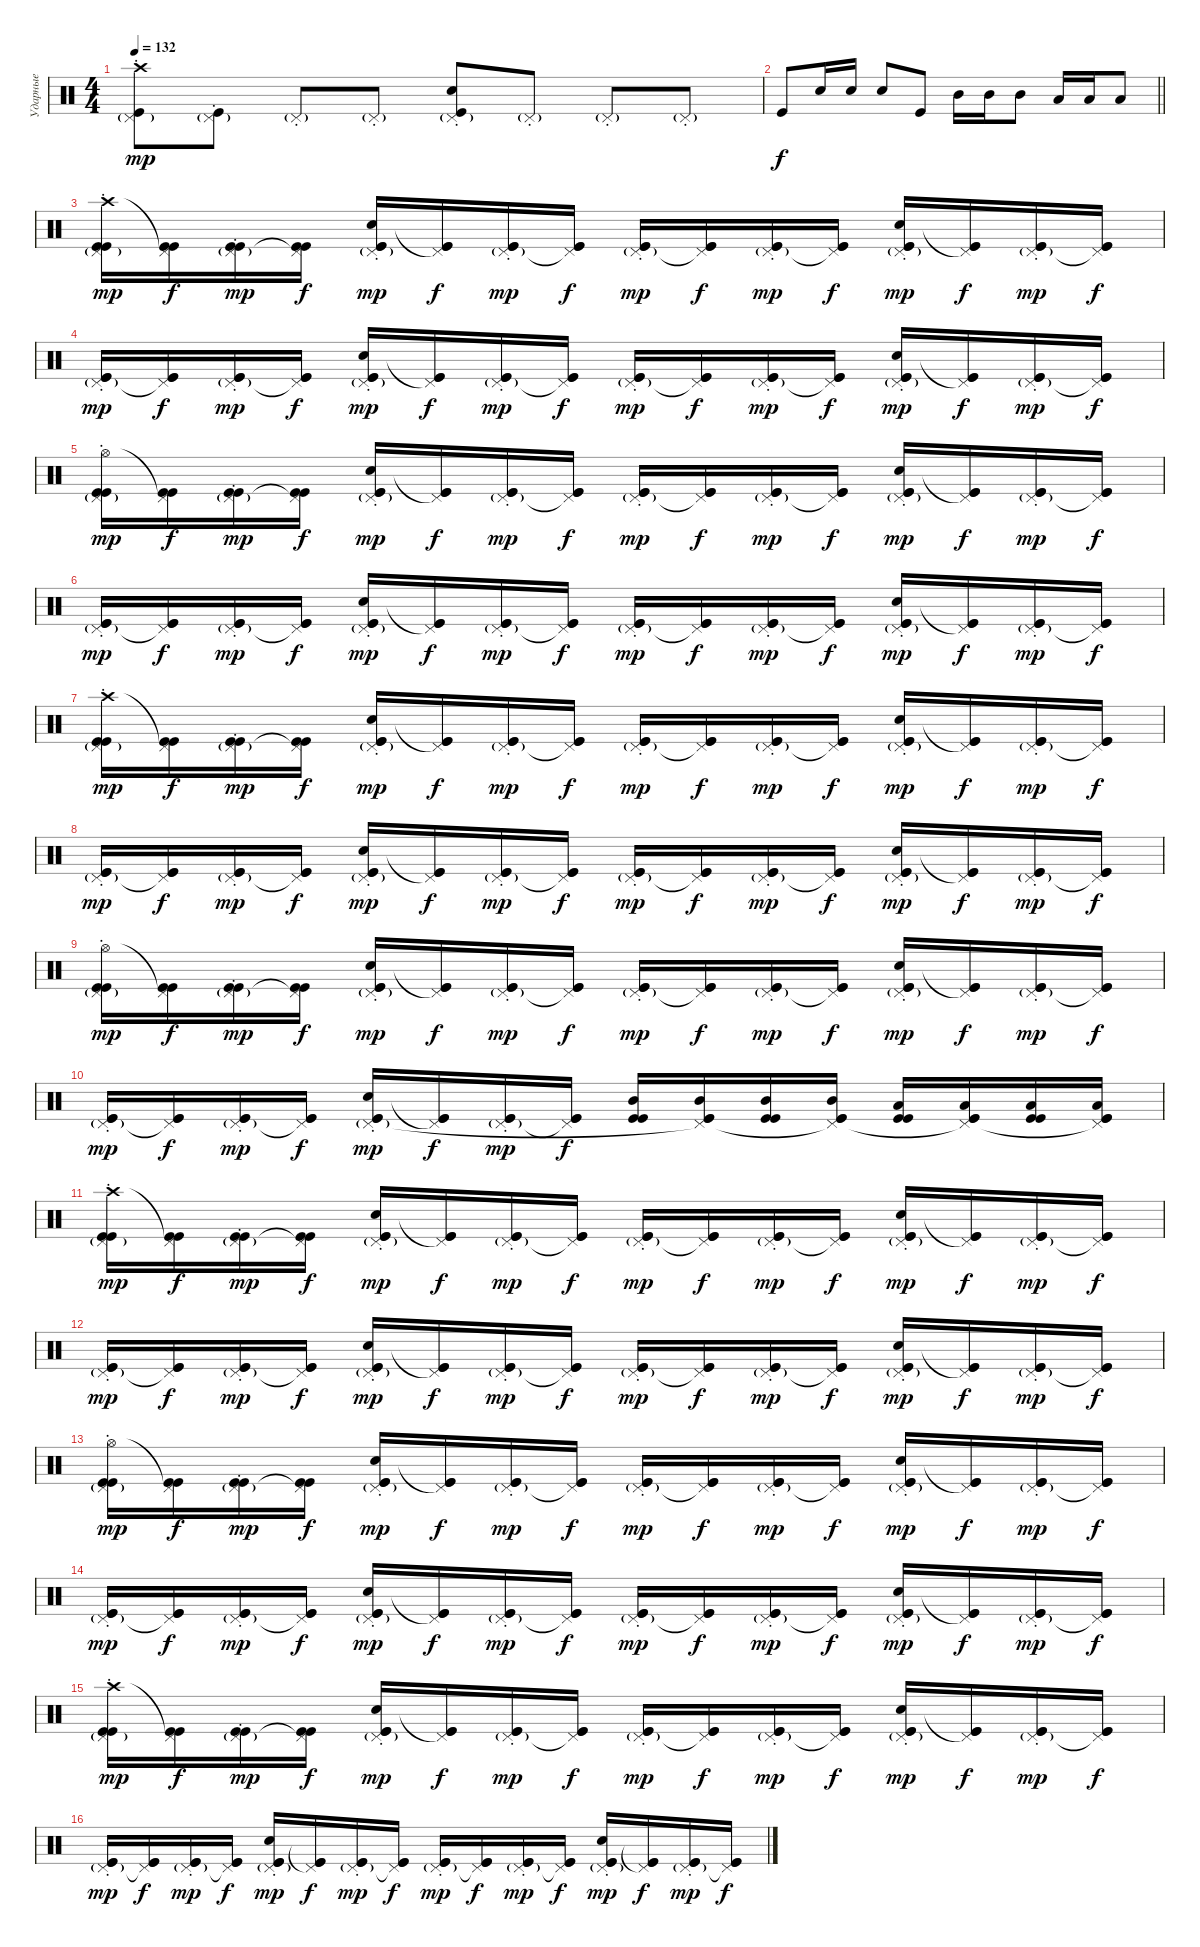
\track ("Ударные" "Ударные") {instrument percussion}
\staff {score}
\articulation defaults
\ts (4 4)
\tempo 132
\clef neutral
\ks c
("Pedal Hi-Hat (hit)"{g st} "Kick (hit)" "Crash high (hit)").8{dy mp} ("Pedal Hi-Hat (hit)"{g st} "Kick (hit)").8 "Pedal Hi-Hat (hit)"{g st}.8 "Pedal Hi-Hat (hit)"{g st}.8 ("Pedal Hi-Hat (hit)"{g st} "Electric Snare (hit)" "Kick (hit)").8 "Pedal Hi-Hat (hit)"{g st}.8 "Pedal Hi-Hat (hit)"{g st}.8 "Pedal Hi-Hat (hit)"{g st}.8 |
\barLineRight lightlight "Kick (hit)".8{dy f} "Electric Snare (hit)".16 "Electric Snare (hit)".16 "Electric Snare (hit)".8 "Kick (hit)".8 "Mid Tom (hit)".16 "Mid Tom (hit)".16 "Mid Tom (hit)".8 "Low Tom (hit)".16 "Low Tom (hit)".16 "Low Tom (hit)".8
|
("Kick (hit)" "Kick (hit)" "Crash high (hit)" "Pedal Hi-Hat (hit)"{g st}).16{dy mp} ("Kick (hit)" "Kick (hit)" "Pedal Hi-Hat (hit)"{t}).16{dy f} ("Kick (hit)" "Kick (hit)" "Pedal Hi-Hat (hit)"{g st}).16{dy mp} ("Kick (hit)" "Kick (hit)" "Pedal Hi-Hat (hit)"{t}).16{dy f} ("Kick (hit)" "Kick (hit)" "Electric Snare (hit)" "Pedal Hi-Hat (hit)"{g st}).16{dy mp} ("Kick (hit)" "Kick (hit)" "Pedal Hi-Hat (hit)"{t}).16{dy f} ("Kick (hit)" "Kick (hit)" "Pedal Hi-Hat (hit)"{g st}).16{dy mp} ("Kick (hit)" "Kick (hit)" "Pedal Hi-Hat (hit)"{t}).16{dy f} ("Kick (hit)" "Kick (hit)" "Pedal Hi-Hat (hit)"{g st}).16{dy mp} ("Kick (hit)" "Kick (hit)" "Pedal Hi-Hat (hit)"{t}).16{dy f} ("Kick (hit)" "Kick (hit)" "Pedal Hi-Hat (hit)"{g st}).16{dy mp} ("Kick (hit)" "Kick (hit)" "Pedal Hi-Hat (hit)"{t}).16{dy f} ("Kick (hit)" "Kick (hit)" "Electric Snare (hit)" "Pedal Hi-Hat (hit)"{g st}).16{dy mp} ("Kick (hit)" "Kick (hit)" "Pedal Hi-Hat (hit)"{t}).16{dy f} ("Kick (hit)" "Kick (hit)" "Pedal Hi-Hat (hit)"{g st}).16{dy mp} ("Kick (hit)" "Kick (hit)" "Pedal Hi-Hat (hit)"{t}).16{dy f} |
("Kick (hit)" "Kick (hit)" "Pedal Hi-Hat (hit)"{g st}).16{dy mp} ("Kick (hit)" "Kick (hit)" "Pedal Hi-Hat (hit)"{t}).16{dy f} ("Kick (hit)" "Kick (hit)" "Pedal Hi-Hat (hit)"{g st}).16{dy mp} ("Kick (hit)" "Kick (hit)" "Pedal Hi-Hat (hit)"{t}).16{dy f} ("Kick (hit)" "Kick (hit)" "Electric Snare (hit)" "Pedal Hi-Hat (hit)"{g st}).16{dy mp} ("Kick (hit)" "Kick (hit)" "Pedal Hi-Hat (hit)"{t}).16{dy f} ("Kick (hit)" "Kick (hit)" "Pedal Hi-Hat (hit)"{g st}).16{dy mp} ("Kick (hit)" "Kick (hit)" "Pedal Hi-Hat (hit)"{t}).16{dy f} ("Kick (hit)" "Kick (hit)" "Pedal Hi-Hat (hit)"{g st}).16{dy mp} ("Kick (hit)" "Kick (hit)" "Pedal Hi-Hat (hit)"{t}).16{dy f} ("Kick (hit)" "Kick (hit)" "Pedal Hi-Hat (hit)"{g st}).16{dy mp} ("Kick (hit)" "Kick (hit)" "Pedal Hi-Hat (hit)"{t}).16{dy f} ("Kick (hit)" "Kick (hit)" "Electric Snare (hit)" "Pedal Hi-Hat (hit)"{g st}).16{dy mp} ("Kick (hit)" "Kick (hit)" "Pedal Hi-Hat (hit)"{t}).16{dy f} ("Kick (hit)" "Kick (hit)" "Pedal Hi-Hat (hit)"{g st}).16{dy mp} ("Kick (hit)" "Kick (hit)" "Pedal Hi-Hat (hit)"{t}).16{dy f} |
("Kick (hit)" "Kick (hit)" "Hi-Hat (open)" "Pedal Hi-Hat (hit)"{g st}).16{dy mp} ("Kick (hit)" "Kick (hit)" "Pedal Hi-Hat (hit)"{t}).16{dy f} ("Kick (hit)" "Kick (hit)" "Pedal Hi-Hat (hit)"{g st}).16{dy mp} ("Kick (hit)" "Kick (hit)" "Pedal Hi-Hat (hit)"{t}).16{dy f} ("Kick (hit)" "Kick (hit)" "Electric Snare (hit)" "Pedal Hi-Hat (hit)"{g st}).16{dy mp} ("Kick (hit)" "Kick (hit)" "Pedal Hi-Hat (hit)"{t}).16{dy f} ("Kick (hit)" "Kick (hit)" "Pedal Hi-Hat (hit)"{g st}).16{dy mp} ("Kick (hit)" "Kick (hit)" "Pedal Hi-Hat (hit)"{t}).16{dy f} ("Kick (hit)" "Kick (hit)" "Pedal Hi-Hat (hit)"{g st}).16{dy mp} ("Kick (hit)" "Kick (hit)" "Pedal Hi-Hat (hit)"{t}).16{dy f} ("Kick (hit)" "Kick (hit)" "Pedal Hi-Hat (hit)"{g st}).16{dy mp} ("Kick (hit)" "Kick (hit)" "Pedal Hi-Hat (hit)"{t}).16{dy f} ("Kick (hit)" "Kick (hit)" "Electric Snare (hit)" "Pedal Hi-Hat (hit)"{g st}).16{dy mp} ("Kick (hit)" "Kick (hit)" "Pedal Hi-Hat (hit)"{t}).16{dy f} ("Kick (hit)" "Kick (hit)" "Pedal Hi-Hat (hit)"{g st}).16{dy mp} ("Kick (hit)" "Kick (hit)" "Pedal Hi-Hat (hit)"{t}).16{dy f} |
("Kick (hit)" "Kick (hit)" "Pedal Hi-Hat (hit)"{g st}).16{dy mp} ("Kick (hit)" "Kick (hit)" "Pedal Hi-Hat (hit)"{t}).16{dy f} ("Kick (hit)" "Kick (hit)" "Pedal Hi-Hat (hit)"{g st}).16{dy mp} ("Kick (hit)" "Kick (hit)" "Pedal Hi-Hat (hit)"{t}).16{dy f} ("Kick (hit)" "Kick (hit)" "Electric Snare (hit)" "Pedal Hi-Hat (hit)"{g st}).16{dy mp} ("Kick (hit)" "Kick (hit)" "Pedal Hi-Hat (hit)"{t}).16{dy f} ("Kick (hit)" "Kick (hit)" "Pedal Hi-Hat (hit)"{g st}).16{dy mp} ("Kick (hit)" "Kick (hit)" "Pedal Hi-Hat (hit)"{t}).16{dy f} ("Kick (hit)" "Kick (hit)" "Pedal Hi-Hat (hit)"{g st}).16{dy mp} ("Kick (hit)" "Kick (hit)" "Pedal Hi-Hat (hit)"{t}).16{dy f} ("Kick (hit)" "Kick (hit)" "Pedal Hi-Hat (hit)"{g st}).16{dy mp} ("Kick (hit)" "Kick (hit)" "Pedal Hi-Hat (hit)"{t}).16{dy f} ("Kick (hit)" "Kick (hit)" "Electric Snare (hit)" "Pedal Hi-Hat (hit)"{g st}).16{dy mp} ("Kick (hit)" "Kick (hit)" "Pedal Hi-Hat (hit)"{t}).16{dy f} ("Kick (hit)" "Kick (hit)" "Pedal Hi-Hat (hit)"{g st}).16{dy mp} ("Kick (hit)" "Kick (hit)" "Pedal Hi-Hat (hit)"{t}).16{dy f} |
("Kick (hit)" "Kick (hit)" "Crash high (hit)" "Pedal Hi-Hat (hit)"{g st}).16{dy mp} ("Kick (hit)" "Kick (hit)" "Pedal Hi-Hat (hit)"{t}).16{dy f} ("Kick (hit)" "Kick (hit)" "Pedal Hi-Hat (hit)"{g st}).16{dy mp} ("Kick (hit)" "Kick (hit)" "Pedal Hi-Hat (hit)"{t}).16{dy f} ("Kick (hit)" "Kick (hit)" "Electric Snare (hit)" "Pedal Hi-Hat (hit)"{g st}).16{dy mp} ("Kick (hit)" "Kick (hit)" "Pedal Hi-Hat (hit)"{t}).16{dy f} ("Kick (hit)" "Kick (hit)" "Pedal Hi-Hat (hit)"{g st}).16{dy mp} ("Kick (hit)" "Kick (hit)" "Pedal Hi-Hat (hit)"{t}).16{dy f} ("Kick (hit)" "Kick (hit)" "Pedal Hi-Hat (hit)"{g st}).16{dy mp} ("Kick (hit)" "Kick (hit)" "Pedal Hi-Hat (hit)"{t}).16{dy f} ("Kick (hit)" "Kick (hit)" "Pedal Hi-Hat (hit)"{g st}).16{dy mp} ("Kick (hit)" "Kick (hit)" "Pedal Hi-Hat (hit)"{t}).16{dy f} ("Kick (hit)" "Kick (hit)" "Electric Snare (hit)" "Pedal Hi-Hat (hit)"{g st}).16{dy mp} ("Kick (hit)" "Kick (hit)" "Pedal Hi-Hat (hit)"{t}).16{dy f} ("Kick (hit)" "Kick (hit)" "Pedal Hi-Hat (hit)"{g st}).16{dy mp} ("Kick (hit)" "Kick (hit)" "Pedal Hi-Hat (hit)"{t}).16{dy f} |
("Kick (hit)" "Kick (hit)" "Pedal Hi-Hat (hit)"{g st}).16{dy mp} ("Kick (hit)" "Kick (hit)" "Pedal Hi-Hat (hit)"{t}).16{dy f} ("Kick (hit)" "Kick (hit)" "Pedal Hi-Hat (hit)"{g st}).16{dy mp} ("Kick (hit)" "Kick (hit)" "Pedal Hi-Hat (hit)"{t}).16{dy f} ("Kick (hit)" "Kick (hit)" "Electric Snare (hit)" "Pedal Hi-Hat (hit)"{g st}).16{dy mp} ("Kick (hit)" "Kick (hit)" "Pedal Hi-Hat (hit)"{t}).16{dy f} ("Kick (hit)" "Kick (hit)" "Pedal Hi-Hat (hit)"{g st}).16{dy mp} ("Kick (hit)" "Kick (hit)" "Pedal Hi-Hat (hit)"{t}).16{dy f} ("Kick (hit)" "Kick (hit)" "Pedal Hi-Hat (hit)"{g st}).16{dy mp} ("Kick (hit)" "Kick (hit)" "Pedal Hi-Hat (hit)"{t}).16{dy f} ("Kick (hit)" "Kick (hit)" "Pedal Hi-Hat (hit)"{g st}).16{dy mp} ("Kick (hit)" "Kick (hit)" "Pedal Hi-Hat (hit)"{t}).16{dy f} ("Kick (hit)" "Kick (hit)" "Electric Snare (hit)" "Pedal Hi-Hat (hit)"{g st}).16{dy mp} ("Kick (hit)" "Kick (hit)" "Pedal Hi-Hat (hit)"{t}).16{dy f} ("Kick (hit)" "Kick (hit)" "Pedal Hi-Hat (hit)"{g st}).16{dy mp} ("Kick (hit)" "Kick (hit)" "Pedal Hi-Hat (hit)"{t}).16{dy f} |
("Kick (hit)" "Kick (hit)" "Hi-Hat (open)" "Pedal Hi-Hat (hit)"{g st}).16{dy mp} ("Kick (hit)" "Kick (hit)" "Pedal Hi-Hat (hit)"{t}).16{dy f} ("Kick (hit)" "Kick (hit)" "Pedal Hi-Hat (hit)"{g st}).16{dy mp} ("Kick (hit)" "Kick (hit)" "Pedal Hi-Hat (hit)"{t}).16{dy f} ("Kick (hit)" "Kick (hit)" "Electric Snare (hit)" "Pedal Hi-Hat (hit)"{g st}).16{dy mp} ("Kick (hit)" "Kick (hit)" "Pedal Hi-Hat (hit)"{t}).16{dy f} ("Kick (hit)" "Kick (hit)" "Pedal Hi-Hat (hit)"{g st}).16{dy mp} ("Kick (hit)" "Kick (hit)" "Pedal Hi-Hat (hit)"{t}).16{dy f} ("Kick (hit)" "Kick (hit)" "Pedal Hi-Hat (hit)"{g st}).16{dy mp} ("Kick (hit)" "Kick (hit)" "Pedal Hi-Hat (hit)"{t}).16{dy f} ("Kick (hit)" "Kick (hit)" "Pedal Hi-Hat (hit)"{g st}).16{dy mp} ("Kick (hit)" "Kick (hit)" "Pedal Hi-Hat (hit)"{t}).16{dy f} ("Kick (hit)" "Kick (hit)" "Electric Snare (hit)" "Pedal Hi-Hat (hit)"{g st}).16{dy mp} ("Kick (hit)" "Kick (hit)" "Pedal Hi-Hat (hit)"{t}).16{dy f} ("Kick (hit)" "Kick (hit)" "Pedal Hi-Hat (hit)"{g st}).16{dy mp} ("Kick (hit)" "Kick (hit)" "Pedal Hi-Hat (hit)"{t}).16{dy f} |
("Kick (hit)" "Kick (hit)" "Pedal Hi-Hat (hit)"{g st}).16{dy mp} ("Kick (hit)" "Kick (hit)" "Pedal Hi-Hat (hit)"{t}).16{dy f} ("Kick (hit)" "Kick (hit)" "Pedal Hi-Hat (hit)"{g st}).16{dy mp} ("Kick (hit)" "Kick (hit)" "Pedal Hi-Hat (hit)"{t}).16{dy f} ("Kick (hit)" "Kick (hit)" "Electric Snare (hit)" "Pedal Hi-Hat (hit)"{g st}).16{dy mp} ("Kick (hit)" "Kick (hit)" "Pedal Hi-Hat (hit)"{t}).16{dy f} ("Kick (hit)" "Kick (hit)" "Pedal Hi-Hat (hit)"{g st}).16{dy mp} ("Kick (hit)" "Kick (hit)" "Pedal Hi-Hat (hit)"{t}).16{dy f} ("Kick (hit)" "Kick (hit)" "Mid Tom (hit)").16 ("Kick (hit)" "Kick (hit)" "Mid Tom (hit)" "Pedal Hi-Hat (hit)"{t}).16 ("Kick (hit)" "Kick (hit)" "Mid Tom (hit)").16 ("Kick (hit)" "Kick (hit)" "Mid Tom (hit)" "Pedal Hi-Hat (hit)"{t}).16 ("Kick (hit)" "Kick (hit)" "Low Tom (hit)").16 ("Kick (hit)" "Kick (hit)" "Low Tom (hit)" "Pedal Hi-Hat (hit)"{t}).16 ("Kick (hit)" "Kick (hit)" "Low Tom (hit)").16 ("Kick (hit)" "Kick (hit)" "Low Tom (hit)" "Pedal Hi-Hat (hit)"{t}).16 |
("Kick (hit)" "Kick (hit)" "Crash high (hit)" "Pedal Hi-Hat (hit)"{g st}).16{dy mp} ("Kick (hit)" "Kick (hit)" "Pedal Hi-Hat (hit)"{t}).16{dy f} ("Kick (hit)" "Kick (hit)" "Pedal Hi-Hat (hit)"{g st}).16{dy mp} ("Kick (hit)" "Kick (hit)" "Pedal Hi-Hat (hit)"{t}).16{dy f} ("Kick (hit)" "Kick (hit)" "Electric Snare (hit)" "Pedal Hi-Hat (hit)"{g st}).16{dy mp} ("Kick (hit)" "Kick (hit)" "Pedal Hi-Hat (hit)"{t}).16{dy f} ("Kick (hit)" "Kick (hit)" "Pedal Hi-Hat (hit)"{g st}).16{dy mp} ("Kick (hit)" "Kick (hit)" "Pedal Hi-Hat (hit)"{t}).16{dy f} ("Kick (hit)" "Kick (hit)" "Pedal Hi-Hat (hit)"{g st}).16{dy mp} ("Kick (hit)" "Kick (hit)" "Pedal Hi-Hat (hit)"{t}).16{dy f} ("Kick (hit)" "Kick (hit)" "Pedal Hi-Hat (hit)"{g st}).16{dy mp} ("Kick (hit)" "Kick (hit)" "Pedal Hi-Hat (hit)"{t}).16{dy f} ("Kick (hit)" "Kick (hit)" "Electric Snare (hit)" "Pedal Hi-Hat (hit)"{g st}).16{dy mp} ("Kick (hit)" "Kick (hit)" "Pedal Hi-Hat (hit)"{t}).16{dy f} ("Kick (hit)" "Kick (hit)" "Pedal Hi-Hat (hit)"{g st}).16{dy mp} ("Kick (hit)" "Kick (hit)" "Pedal Hi-Hat (hit)"{t}).16{dy f} |
("Kick (hit)" "Kick (hit)" "Pedal Hi-Hat (hit)"{g st}).16{dy mp} ("Kick (hit)" "Kick (hit)" "Pedal Hi-Hat (hit)"{t}).16{dy f} ("Kick (hit)" "Kick (hit)" "Pedal Hi-Hat (hit)"{g st}).16{dy mp} ("Kick (hit)" "Kick (hit)" "Pedal Hi-Hat (hit)"{t}).16{dy f} ("Kick (hit)" "Kick (hit)" "Electric Snare (hit)" "Pedal Hi-Hat (hit)"{g st}).16{dy mp} ("Kick (hit)" "Kick (hit)" "Pedal Hi-Hat (hit)"{t}).16{dy f} ("Kick (hit)" "Kick (hit)" "Pedal Hi-Hat (hit)"{g st}).16{dy mp} ("Kick (hit)" "Kick (hit)" "Pedal Hi-Hat (hit)"{t}).16{dy f} ("Kick (hit)" "Kick (hit)" "Pedal Hi-Hat (hit)"{g st}).16{dy mp} ("Kick (hit)" "Kick (hit)" "Pedal Hi-Hat (hit)"{t}).16{dy f} ("Kick (hit)" "Kick (hit)" "Pedal Hi-Hat (hit)"{g st}).16{dy mp} ("Kick (hit)" "Kick (hit)" "Pedal Hi-Hat (hit)"{t}).16{dy f} ("Kick (hit)" "Kick (hit)" "Electric Snare (hit)" "Pedal Hi-Hat (hit)"{g st}).16{dy mp} ("Kick (hit)" "Kick (hit)" "Pedal Hi-Hat (hit)"{t}).16{dy f} ("Kick (hit)" "Kick (hit)" "Pedal Hi-Hat (hit)"{g st}).16{dy mp} ("Kick (hit)" "Kick (hit)" "Pedal Hi-Hat (hit)"{t}).16{dy f} |
("Kick (hit)" "Kick (hit)" "Hi-Hat (open)" "Pedal Hi-Hat (hit)"{g st}).16{dy mp} ("Kick (hit)" "Kick (hit)" "Pedal Hi-Hat (hit)"{t}).16{dy f} ("Kick (hit)" "Kick (hit)" "Pedal Hi-Hat (hit)"{g st}).16{dy mp} ("Kick (hit)" "Kick (hit)" "Pedal Hi-Hat (hit)"{t}).16{dy f} ("Kick (hit)" "Kick (hit)" "Electric Snare (hit)" "Pedal Hi-Hat (hit)"{g st}).16{dy mp} ("Kick (hit)" "Kick (hit)" "Pedal Hi-Hat (hit)"{t}).16{dy f} ("Kick (hit)" "Kick (hit)" "Pedal Hi-Hat (hit)"{g st}).16{dy mp} ("Kick (hit)" "Kick (hit)" "Pedal Hi-Hat (hit)"{t}).16{dy f} ("Kick (hit)" "Kick (hit)" "Pedal Hi-Hat (hit)"{g st}).16{dy mp} ("Kick (hit)" "Kick (hit)" "Pedal Hi-Hat (hit)"{t}).16{dy f} ("Kick (hit)" "Kick (hit)" "Pedal Hi-Hat (hit)"{g st}).16{dy mp} ("Kick (hit)" "Kick (hit)" "Pedal Hi-Hat (hit)"{t}).16{dy f} ("Kick (hit)" "Kick (hit)" "Electric Snare (hit)" "Pedal Hi-Hat (hit)"{g st}).16{dy mp} ("Kick (hit)" "Kick (hit)" "Pedal Hi-Hat (hit)"{t}).16{dy f} ("Kick (hit)" "Kick (hit)" "Pedal Hi-Hat (hit)"{g st}).16{dy mp} ("Kick (hit)" "Kick (hit)" "Pedal Hi-Hat (hit)"{t}).16{dy f} |
("Kick (hit)" "Kick (hit)" "Pedal Hi-Hat (hit)"{g st}).16{dy mp} ("Kick (hit)" "Kick (hit)" "Pedal Hi-Hat (hit)"{t}).16{dy f} ("Kick (hit)" "Kick (hit)" "Pedal Hi-Hat (hit)"{g st}).16{dy mp} ("Kick (hit)" "Kick (hit)" "Pedal Hi-Hat (hit)"{t}).16{dy f} ("Kick (hit)" "Kick (hit)" "Electric Snare (hit)" "Pedal Hi-Hat (hit)"{g st}).16{dy mp} ("Kick (hit)" "Kick (hit)" "Pedal Hi-Hat (hit)"{t}).16{dy f} ("Kick (hit)" "Kick (hit)" "Pedal Hi-Hat (hit)"{g st}).16{dy mp} ("Kick (hit)" "Kick (hit)" "Pedal Hi-Hat (hit)"{t}).16{dy f} ("Kick (hit)" "Kick (hit)" "Pedal Hi-Hat (hit)"{g st}).16{dy mp} ("Kick (hit)" "Kick (hit)" "Pedal Hi-Hat (hit)"{t}).16{dy f} ("Kick (hit)" "Kick (hit)" "Pedal Hi-Hat (hit)"{g st}).16{dy mp} ("Kick (hit)" "Kick (hit)" "Pedal Hi-Hat (hit)"{t}).16{dy f} ("Kick (hit)" "Kick (hit)" "Electric Snare (hit)" "Pedal Hi-Hat (hit)"{g st}).16{dy mp} ("Kick (hit)" "Kick (hit)" "Pedal Hi-Hat (hit)"{t}).16{dy f} ("Kick (hit)" "Kick (hit)" "Pedal Hi-Hat (hit)"{g st}).16{dy mp} ("Kick (hit)" "Kick (hit)" "Pedal Hi-Hat (hit)"{t}).16{dy f} |
("Kick (hit)" "Kick (hit)" "Crash high (hit)" "Pedal Hi-Hat (hit)"{g st}).16{dy mp} ("Kick (hit)" "Kick (hit)" "Pedal Hi-Hat (hit)"{t}).16{dy f} ("Kick (hit)" "Kick (hit)" "Pedal Hi-Hat (hit)"{g st}).16{dy mp} ("Kick (hit)" "Kick (hit)" "Pedal Hi-Hat (hit)"{t}).16{dy f} ("Kick (hit)" "Kick (hit)" "Electric Snare (hit)" "Pedal Hi-Hat (hit)"{g st}).16{dy mp} ("Kick (hit)" "Kick (hit)" "Pedal Hi-Hat (hit)"{t}).16{dy f} ("Kick (hit)" "Kick (hit)" "Pedal Hi-Hat (hit)"{g st}).16{dy mp} ("Kick (hit)" "Kick (hit)" "Pedal Hi-Hat (hit)"{t}).16{dy f} ("Kick (hit)" "Kick (hit)" "Pedal Hi-Hat (hit)"{g st}).16{dy mp} ("Kick (hit)" "Kick (hit)" "Pedal Hi-Hat (hit)"{t}).16{dy f} ("Kick (hit)" "Kick (hit)" "Pedal Hi-Hat (hit)"{g st}).16{dy mp} ("Kick (hit)" "Kick (hit)" "Pedal Hi-Hat (hit)"{t}).16{dy f} ("Kick (hit)" "Kick (hit)" "Electric Snare (hit)" "Pedal Hi-Hat (hit)"{g st}).16{dy mp} ("Kick (hit)" "Kick (hit)" "Pedal Hi-Hat (hit)"{t}).16{dy f} ("Kick (hit)" "Kick (hit)" "Pedal Hi-Hat (hit)"{g st}).16{dy mp} ("Kick (hit)" "Kick (hit)" "Pedal Hi-Hat (hit)"{t}).16{dy f} |
("Kick (hit)" "Kick (hit)" "Pedal Hi-Hat (hit)"{g st}).16{dy mp} ("Kick (hit)" "Kick (hit)" "Pedal Hi-Hat (hit)"{t}).16{dy f} ("Kick (hit)" "Kick (hit)" "Pedal Hi-Hat (hit)"{g st}).16{dy mp} ("Kick (hit)" "Kick (hit)" "Pedal Hi-Hat (hit)"{t}).16{dy f} ("Kick (hit)" "Kick (hit)" "Electric Snare (hit)" "Pedal Hi-Hat (hit)"{g st}).16{dy mp} ("Kick (hit)" "Kick (hit)" "Pedal Hi-Hat (hit)"{t}).16{dy f} ("Kick (hit)" "Kick (hit)" "Pedal Hi-Hat (hit)"{g st}).16{dy mp} ("Kick (hit)" "Kick (hit)" "Pedal Hi-Hat (hit)"{t}).16{dy f} ("Kick (hit)" "Kick (hit)" "Pedal Hi-Hat (hit)"{g st}).16{dy mp} ("Kick (hit)" "Kick (hit)" "Pedal Hi-Hat (hit)"{t}).16{dy f} ("Kick (hit)" "Kick (hit)" "Pedal Hi-Hat (hit)"{g st}).16{dy mp} ("Kick (hit)" "Kick (hit)" "Pedal Hi-Hat (hit)"{t}).16{dy f} ("Kick (hit)" "Kick (hit)" "Electric Snare (hit)" "Pedal Hi-Hat (hit)"{g st}).16{dy mp} ("Kick (hit)" "Kick (hit)" "Pedal Hi-Hat (hit)"{t}).16{dy f} ("Kick (hit)" "Kick (hit)" "Pedal Hi-Hat (hit)"{g st}).16{dy mp} ("Kick (hit)" "Kick (hit)" "Pedal Hi-Hat (hit)"{t}).16{dy f}
